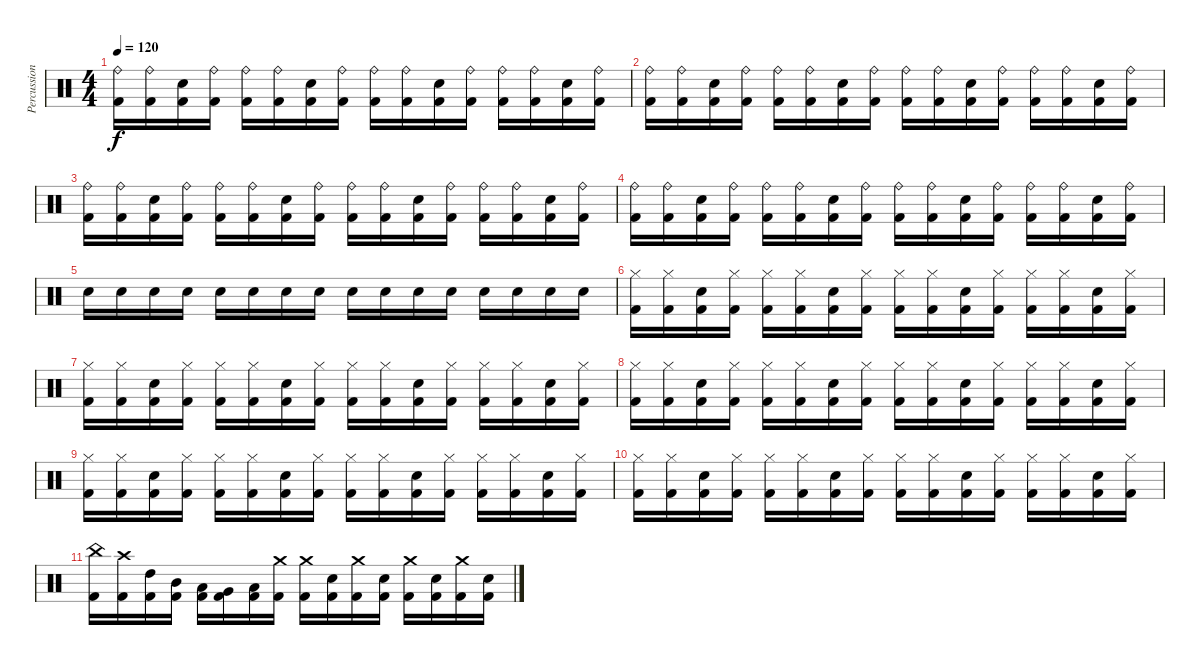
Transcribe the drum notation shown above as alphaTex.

\track ("Percussion" "Percussion") {instrument percussion}
\staff {score}
\articulation defaults
\ts (4 4)
\tempo 120
\clef neutral
\ks c
("Kick (hit) 2" "Ride (bell)").16{dy f} ("Kick (hit) 2" "Ride (bell)").16 ("Kick (hit) 2" "Electric Snare (hit)").16 ("Kick (hit) 2" "Ride (bell)").16 ("Kick (hit) 2" "Ride (bell)").16 ("Kick (hit) 2" "Ride (bell)").16 ("Kick (hit) 2" "Electric Snare (hit)").16 ("Kick (hit) 2" "Ride (bell)").16 ("Kick (hit) 2" "Ride (bell)").16 ("Kick (hit) 2" "Ride (bell)").16 ("Kick (hit) 2" "Electric Snare (hit)").16 ("Kick (hit) 2" "Ride (bell)").16 ("Kick (hit) 2" "Ride (bell)").16 ("Kick (hit) 2" "Ride (bell)").16 ("Kick (hit) 2" "Electric Snare (hit)").16 ("Kick (hit) 2" "Ride (bell)").16 |
("Kick (hit) 2" "Ride (bell)").16 ("Kick (hit) 2" "Ride (bell)").16 ("Kick (hit) 2" "Electric Snare (hit)").16 ("Kick (hit) 2" "Ride (bell)").16 ("Kick (hit) 2" "Ride (bell)").16 ("Kick (hit) 2" "Ride (bell)").16 ("Kick (hit) 2" "Electric Snare (hit)").16 ("Kick (hit) 2" "Ride (bell)").16 ("Kick (hit) 2" "Ride (bell)").16 ("Kick (hit) 2" "Ride (bell)").16 ("Kick (hit) 2" "Electric Snare (hit)").16 ("Kick (hit) 2" "Ride (bell)").16 ("Kick (hit) 2" "Ride (bell)").16 ("Kick (hit) 2" "Ride (bell)").16 ("Kick (hit) 2" "Electric Snare (hit)").16 ("Kick (hit) 2" "Ride (bell)").16 |
("Kick (hit) 2" "Ride (bell)").16 ("Kick (hit) 2" "Ride (bell)").16 ("Kick (hit) 2" "Electric Snare (hit)").16 ("Kick (hit) 2" "Ride (bell)").16 ("Kick (hit) 2" "Ride (bell)").16 ("Kick (hit) 2" "Ride (bell)").16 ("Kick (hit) 2" "Electric Snare (hit)").16 ("Kick (hit) 2" "Ride (bell)").16 ("Kick (hit) 2" "Ride (bell)").16 ("Kick (hit) 2" "Ride (bell)").16 ("Kick (hit) 2" "Electric Snare (hit)").16 ("Kick (hit) 2" "Ride (bell)").16 ("Kick (hit) 2" "Ride (bell)").16 ("Kick (hit) 2" "Ride (bell)").16 ("Kick (hit) 2" "Electric Snare (hit)").16 ("Kick (hit) 2" "Ride (bell)").16 |
("Kick (hit) 2" "Ride (bell)").16 ("Kick (hit) 2" "Ride (bell)").16 ("Kick (hit) 2" "Electric Snare (hit)").16 ("Kick (hit) 2" "Ride (bell)").16 ("Kick (hit) 2" "Ride (bell)").16 ("Kick (hit) 2" "Ride (bell)").16 ("Kick (hit) 2" "Electric Snare (hit)").16 ("Kick (hit) 2" "Ride (bell)").16 ("Kick (hit) 2" "Ride (bell)").16 ("Kick (hit) 2" "Ride (bell)").16 ("Kick (hit) 2" "Electric Snare (hit)").16 ("Kick (hit) 2" "Ride (bell)").16 ("Kick (hit) 2" "Ride (bell)").16 ("Kick (hit) 2" "Ride (bell)").16 ("Kick (hit) 2" "Electric Snare (hit)").16 ("Kick (hit) 2" "Ride (bell)").16 |
"Electric Snare (hit)".16 "Electric Snare (hit)".16 "Electric Snare (hit)".16 "Electric Snare (hit)".16 "Electric Snare (hit)".16 "Electric Snare (hit)".16 "Electric Snare (hit)".16 "Electric Snare (hit)".16 "Electric Snare (hit)".16 "Electric Snare (hit)".16 "Electric Snare (hit)".16 "Electric Snare (hit)".16 "Electric Snare (hit)".16 "Electric Snare (hit)".16 "Electric Snare (hit)".16 "Electric Snare (hit)".16 |
("Kick (hit) 2" "Hi-Hat (closed)").16 ("Kick (hit) 2" "Hi-Hat (closed)").16 ("Kick (hit) 2" "Electric Snare (hit)").16 ("Kick (hit) 2" "Hi-Hat (closed)").16 ("Kick (hit) 2" "Hi-Hat (closed)").16 ("Kick (hit) 2" "Hi-Hat (closed)").16 ("Kick (hit) 2" "Electric Snare (hit)").16 ("Kick (hit) 2" "Hi-Hat (closed)").16 ("Kick (hit) 2" "Hi-Hat (closed)").16 ("Kick (hit) 2" "Hi-Hat (closed)").16 ("Kick (hit) 2" "Electric Snare (hit)").16 ("Kick (hit) 2" "Hi-Hat (closed)").16 ("Kick (hit) 2" "Hi-Hat (closed)").16 ("Kick (hit) 2" "Hi-Hat (closed)").16 ("Kick (hit) 2" "Electric Snare (hit)").16 ("Kick (hit) 2" "Hi-Hat (closed)").16 |
("Kick (hit) 2" "Hi-Hat (closed)").16 ("Kick (hit) 2" "Hi-Hat (closed)").16 ("Kick (hit) 2" "Electric Snare (hit)").16 ("Kick (hit) 2" "Hi-Hat (closed)").16 ("Kick (hit) 2" "Hi-Hat (closed)").16 ("Kick (hit) 2" "Hi-Hat (closed)").16 ("Kick (hit) 2" "Electric Snare (hit)").16 ("Kick (hit) 2" "Hi-Hat (closed)").16 ("Kick (hit) 2" "Hi-Hat (closed)").16 ("Kick (hit) 2" "Hi-Hat (closed)").16 ("Kick (hit) 2" "Electric Snare (hit)").16 ("Kick (hit) 2" "Hi-Hat (closed)").16 ("Kick (hit) 2" "Hi-Hat (closed)").16 ("Kick (hit) 2" "Hi-Hat (closed)").16 ("Kick (hit) 2" "Electric Snare (hit)").16 ("Kick (hit) 2" "Hi-Hat (closed)").16 |
("Kick (hit) 2" "Hi-Hat (closed)").16 ("Kick (hit) 2" "Hi-Hat (closed)").16 ("Kick (hit) 2" "Electric Snare (hit)").16 ("Kick (hit) 2" "Hi-Hat (closed)").16 ("Kick (hit) 2" "Hi-Hat (closed)").16 ("Kick (hit) 2" "Hi-Hat (closed)").16 ("Kick (hit) 2" "Electric Snare (hit)").16 ("Kick (hit) 2" "Hi-Hat (closed)").16 ("Kick (hit) 2" "Hi-Hat (closed)").16 ("Kick (hit) 2" "Hi-Hat (closed)").16 ("Kick (hit) 2" "Electric Snare (hit)").16 ("Kick (hit) 2" "Hi-Hat (closed)").16 ("Kick (hit) 2" "Hi-Hat (closed)").16 ("Kick (hit) 2" "Hi-Hat (closed)").16 ("Kick (hit) 2" "Electric Snare (hit)").16 ("Kick (hit) 2" "Hi-Hat (closed)").16 |
("Kick (hit) 2" "Hi-Hat (closed)").16 ("Kick (hit) 2" "Hi-Hat (closed)").16 ("Kick (hit) 2" "Electric Snare (hit)").16 ("Kick (hit) 2" "Hi-Hat (closed)").16 ("Kick (hit) 2" "Hi-Hat (closed)").16 ("Kick (hit) 2" "Hi-Hat (closed)").16 ("Kick (hit) 2" "Electric Snare (hit)").16 ("Kick (hit) 2" "Hi-Hat (closed)").16 ("Kick (hit) 2" "Hi-Hat (closed)").16 ("Kick (hit) 2" "Hi-Hat (closed)").16 ("Kick (hit) 2" "Electric Snare (hit)").16 ("Kick (hit) 2" "Hi-Hat (closed)").16 ("Kick (hit) 2" "Hi-Hat (closed)").16 ("Kick (hit) 2" "Hi-Hat (closed)").16 ("Kick (hit) 2" "Electric Snare (hit)").16 ("Kick (hit) 2" "Hi-Hat (closed)").16 |
("Kick (hit) 2" "Hi-Hat (closed)").16 ("Kick (hit) 2" "Hi-Hat (closed)").16 ("Kick (hit) 2" "Electric Snare (hit)").16 ("Kick (hit) 2" "Hi-Hat (closed)").16 ("Kick (hit) 2" "Hi-Hat (closed)").16 ("Kick (hit) 2" "Hi-Hat (closed)").16 ("Kick (hit) 2" "Electric Snare (hit)").16 ("Kick (hit) 2" "Hi-Hat (closed)").16 ("Kick (hit) 2" "Hi-Hat (closed)").16 ("Kick (hit) 2" "Hi-Hat (closed)").16 ("Kick (hit) 2" "Electric Snare (hit)").16 ("Kick (hit) 2" "Hi-Hat (closed)").16 ("Kick (hit) 2" "Hi-Hat (closed)").16 ("Kick (hit) 2" "Hi-Hat (closed)").16 ("Kick (hit) 2" "Electric Snare (hit)").16 ("Kick (hit) 2" "Hi-Hat (closed)").16 |
("Kick (hit) 2" "China (hit)").16 ("Kick (hit) 2" "Crash high (hit)").16 ("Kick (hit) 2" "High Tom (hit)").16 ("Kick (hit) 2" "Mid Tom (hit)").16 ("Kick (hit) 2" "Low Tom (hit)").16 ("Kick (hit) 2" "Very Low Tom (hit)").16 ("Kick (hit) 2" "Low Floor Tom (hit)").16 ("Kick (hit) 2" "Crash medium (hit)").16 ("Kick (hit) 2" "Crash medium (hit)").16 ("Kick (hit) 2" "Electric Snare (hit)").16 ("Kick (hit) 2" "Crash medium (hit)").16 ("Kick (hit) 2" "Electric Snare (hit)").16 ("Kick (hit) 2" "Crash medium (hit)").16 ("Kick (hit) 2" "Electric Snare (hit)").16 ("Kick (hit) 2" "Crash medium (hit)").16 ("Kick (hit) 2" "Electric Snare (hit)").16
